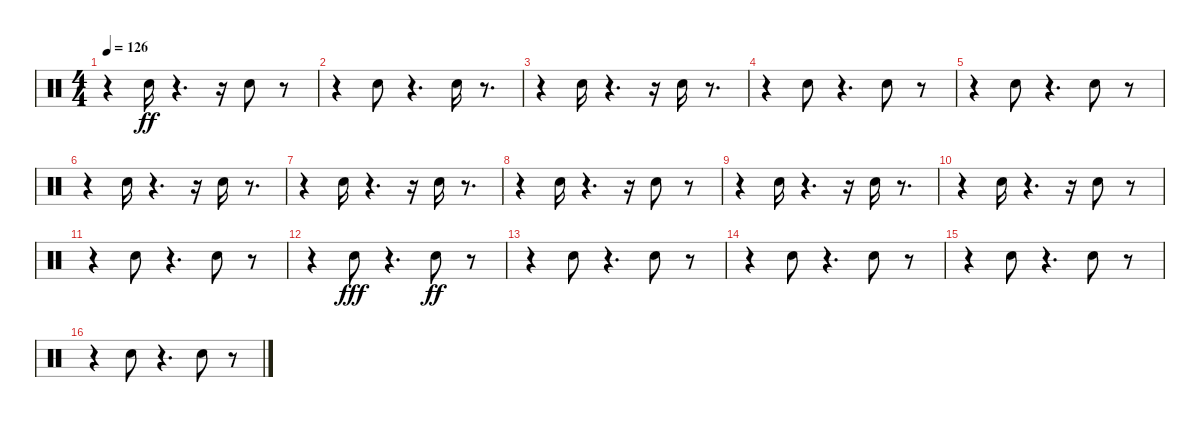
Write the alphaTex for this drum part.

\track "" {instrument percussion}
\staff {score}
\articulation defaults
\ts (4 4)
\tempo 126
\clef neutral
\ks c
r.4{dy ff} "Snare (hit) 2".16 r.4{d} r.16 "Snare (hit) 2".8 r.8 |
r.4 "Snare (hit) 2".8 r.4{d} "Snare (hit) 2".16 r.8{d} |
r.4 "Snare (hit) 2".16 r.4{d} r.16 "Snare (hit) 2".16 r.8{d} |
r.4 "Snare (hit) 2".8 r.4{d} "Snare (hit) 2".8 r.8 |
r.4 "Snare (hit) 2".8 r.4{d} "Snare (hit) 2".8 r.8 |
r.4 "Snare (hit) 2".16 r.4{d} r.16 "Snare (hit) 2".16 r.8{d} |
r.4 "Snare (hit) 2".16 r.4{d} r.16 "Snare (hit) 2".16 r.8{d} |
r.4 "Snare (hit) 2".16 r.4{d} r.16 "Snare (hit) 2".8 r.8 |
r.4 "Snare (hit) 2".16 r.4{d} r.16 "Snare (hit) 2".16 r.8{d} |
r.4 "Snare (hit) 2".16 r.4{d} r.16 "Snare (hit) 2".8 r.8 |
r.4 "Snare (hit) 2".8 r.4{d} "Snare (hit) 2".8 r.8 |
r.4 "Snare (hit) 2".8{dy fff} r.4{d} "Snare (hit) 2".8{dy ff} r.8 |
r.4 "Snare (hit) 2".8 r.4{d} "Snare (hit) 2".8 r.8 |
r.4 "Snare (hit) 2".8 r.4{d} "Snare (hit) 2".8 r.8 |
r.4 "Snare (hit) 2".8 r.4{d} "Snare (hit) 2".8 r.8 |
r.4 "Snare (hit) 2".8 r.4{d} "Snare (hit) 2".8 r.8
